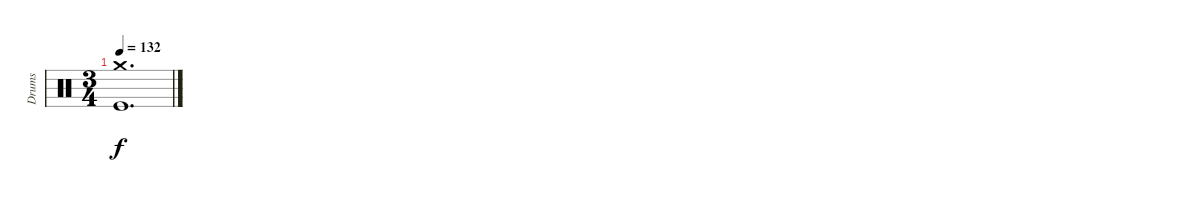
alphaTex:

\track ("Drums" "Drums") {instrument percussion}
\staff {score}
\articulation defaults
\ts (3 4)
\tempo 132
\clef neutral
\ks c
("Crash medium (hit)" "Kick (hit)").1{d dy f}
